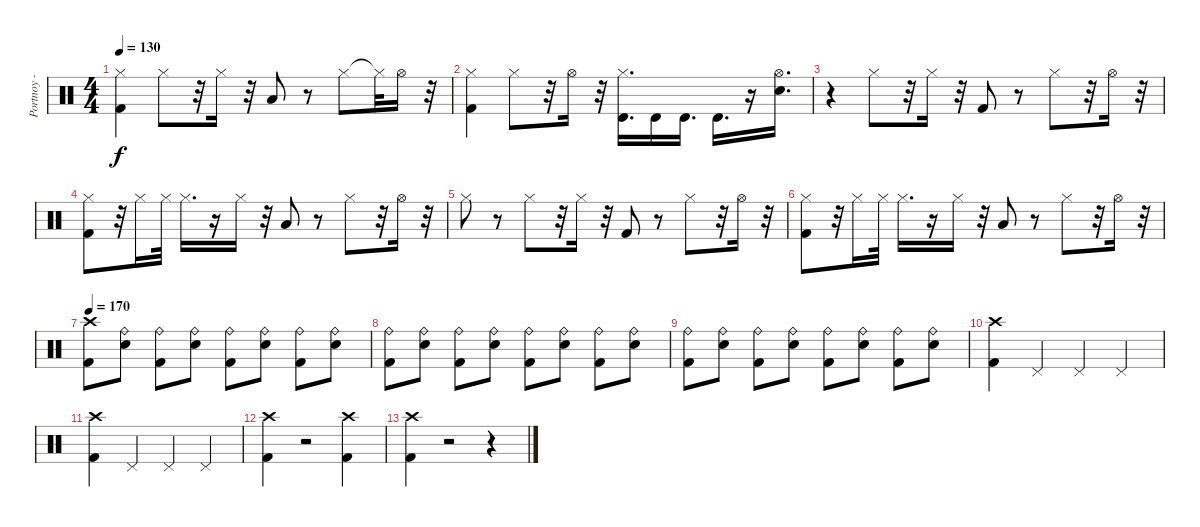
\track ("Portnoy - Drums" "Portnoy - ") {instrument percussion}
\staff {score}
\articulation defaults
\ts (4 4)
\tempo 130
\clef neutral
\ks c
("Kick (hit) 2" "Hi-Hat (closed)").4{dy f} "Hi-Hat (closed)".8 r.32 "Hi-Hat (closed)".16 r.32 "Low Tom (hit)".8 r.8 "Hi-Hat (closed)".8 "Hi-Hat (closed)"{t}.32 "Hi-Hat (open)".16 r.32 |
("Hi-Hat (closed)" "Kick (hit) 2").4 "Hi-Hat (closed)".8 r.32 "Hi-Hat (open)".16 r.32 ("Hi-Hat (closed)" "Timbale high (hit)").16{d} "Timbale high (hit)".16 "Timbale high (hit)".16{d} "Timbale high (hit)".16{d} r.16 ("Electric Snare (hit)" "Hi-Hat (open)").16{d} |
r.4 "Hi-Hat (closed)".8 r.32 "Hi-Hat (closed)".16 r.32 "Kick (hit) 2".8 r.8 "Hi-Hat (closed)".8 r.32 "Hi-Hat (open)".16 r.32 |
("Hi-Hat (closed)" "Kick (hit) 2").8 r.32 "Hi-Hat (closed)".16 "Hi-Hat (closed)".32 "Hi-Hat (closed)".16{d} r.16 "Hi-Hat (closed)".16 r.32 "Low Tom (hit)".8 r.8 "Hi-Hat (closed)".8 r.32 "Hi-Hat (open)".16 r.32 |
"Hi-Hat (closed)".8 r.8 "Hi-Hat (closed)".8 r.32 "Hi-Hat (closed)".16 r.32 "Kick (hit) 2".8 r.8 "Hi-Hat (closed)".8 r.32 "Hi-Hat (open)".16 r.32 |
("Kick (hit) 2" "Hi-Hat (closed)").8 r.32 "Hi-Hat (closed)".16 "Hi-Hat (closed)".32 "Hi-Hat (closed)".16{d} r.16 "Hi-Hat (closed)".16 r.32 "Low Tom (hit)".8 r.8 "Hi-Hat (closed)".8 r.32 "Hi-Hat (open)".16 r.32 |
\tempo 170
("Kick (hit) 2" "Crash high (hit)").8 ("Electric Snare (hit)" "Ride (bell)").8 ("Kick (hit) 2" "Ride (bell)").8 ("Electric Snare (hit)" "Ride (bell)").8 ("Kick (hit) 2" "Ride (bell)").8 ("Electric Snare (hit)" "Ride (bell)").8 ("Kick (hit) 2" "Ride (bell)").8 ("Electric Snare (hit)" "Ride (bell)").8 |
("Kick (hit) 2" "Ride (bell)").8 ("Electric Snare (hit)" "Ride (bell)").8 ("Kick (hit) 2" "Ride (bell)").8 ("Electric Snare (hit)" "Ride (bell)").8 ("Kick (hit) 2" "Ride (bell)").8 ("Electric Snare (hit)" "Ride (bell)").8 ("Kick (hit) 2" "Ride (bell)").8 ("Electric Snare (hit)" "Ride (bell)").8 |
("Kick (hit) 2" "Ride (bell)").8 ("Electric Snare (hit)" "Ride (bell)").8 ("Kick (hit) 2" "Ride (bell)").8 ("Electric Snare (hit)" "Ride (bell)").8 ("Kick (hit) 2" "Ride (bell)").8 ("Electric Snare (hit)" "Ride (bell)").8 ("Kick (hit) 2" "Ride (bell)").8 ("Electric Snare (hit)" "Ride (bell)").8 |
("Kick (hit) 2" "Crash high (hit)").4 "Pedal Hi-Hat (hit)".4 "Pedal Hi-Hat (hit)".4 "Pedal Hi-Hat (hit)".4 |
("Crash high (hit)" "Kick (hit) 2").4 "Pedal Hi-Hat (hit)".4 "Pedal Hi-Hat (hit)".4 "Pedal Hi-Hat (hit)".4 |
("Crash high (hit)" "Kick (hit) 2").4 r.2 ("Kick (hit) 2" "Crash high (hit)").4 |
("Crash high (hit)" "Kick (hit) 2").4 r.2 r.4
